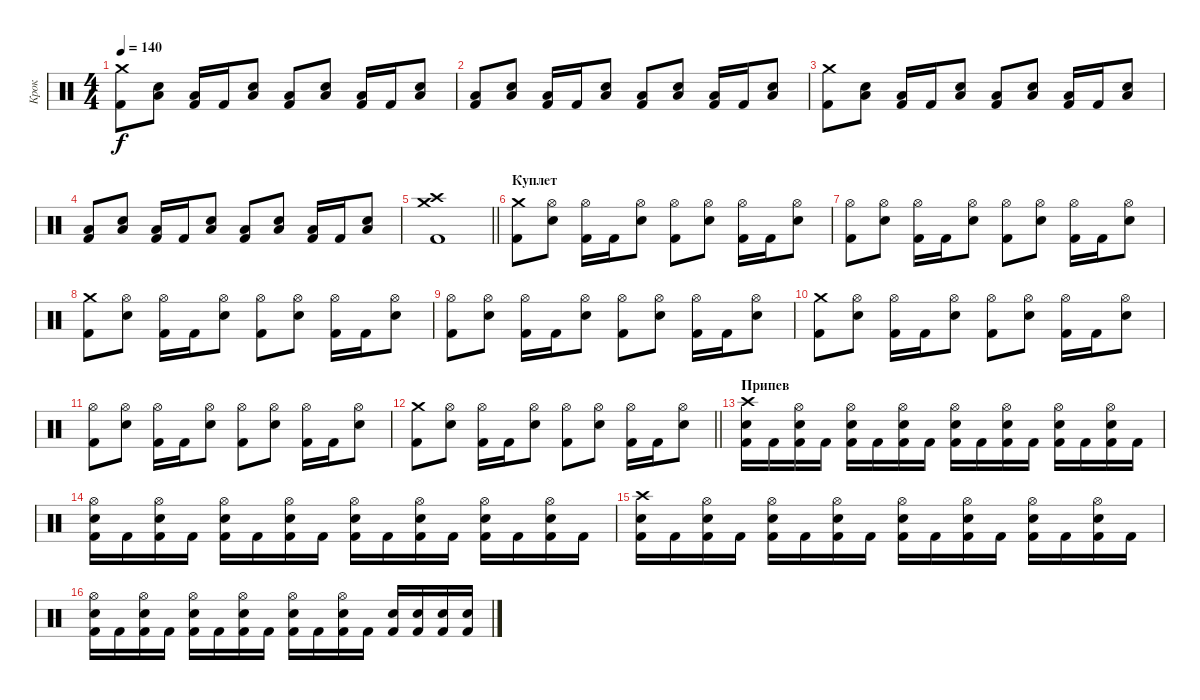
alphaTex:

\track ("Крок" "Крок") {instrument percussion}
\staff {score}
\articulation defaults
\ts (4 4)
\tempo 140
\clef neutral
\ks c
("Crash medium (hit)" "Kick (hit) 2").8{dy f} ("Low Floor Tom (hit)" "Electric Snare (hit)").8 ("Low Floor Tom (hit)" "Kick (hit) 2").16 "Kick (hit) 2".16 ("Low Floor Tom (hit)" "Electric Snare (hit)").8 ("Low Floor Tom (hit)" "Kick (hit) 2").8 ("Low Floor Tom (hit)" "Electric Snare (hit)").8 ("Low Floor Tom (hit)" "Kick (hit) 2").16 "Kick (hit) 2".16 ("Low Floor Tom (hit)" "Electric Snare (hit)").8 |
("Low Floor Tom (hit)" "Kick (hit) 2").8 ("Low Floor Tom (hit)" "Electric Snare (hit)").8 ("Low Floor Tom (hit)" "Kick (hit) 2").16 "Kick (hit) 2".16 ("Low Floor Tom (hit)" "Electric Snare (hit)").8 ("Low Floor Tom (hit)" "Kick (hit) 2").8 ("Low Floor Tom (hit)" "Electric Snare (hit)").8 ("Low Floor Tom (hit)" "Kick (hit) 2").16 "Kick (hit) 2".16 ("Low Floor Tom (hit)" "Electric Snare (hit)").8 |
("Crash medium (hit)" "Kick (hit) 2").8 ("Low Floor Tom (hit)" "Electric Snare (hit)").8 ("Low Floor Tom (hit)" "Kick (hit) 2").16 "Kick (hit) 2".16 ("Low Floor Tom (hit)" "Electric Snare (hit)").8 ("Low Floor Tom (hit)" "Kick (hit) 2").8 ("Low Floor Tom (hit)" "Electric Snare (hit)").8 ("Low Floor Tom (hit)" "Kick (hit) 2").16 "Kick (hit) 2".16 ("Low Floor Tom (hit)" "Electric Snare (hit)").8 |
("Low Floor Tom (hit)" "Kick (hit) 2").8 ("Low Floor Tom (hit)" "Electric Snare (hit)").8 ("Low Floor Tom (hit)" "Kick (hit) 2").16 "Kick (hit) 2".16 ("Low Floor Tom (hit)" "Electric Snare (hit)").8 ("Low Floor Tom (hit)" "Kick (hit) 2").8 ("Low Floor Tom (hit)" "Electric Snare (hit)").8 ("Low Floor Tom (hit)" "Kick (hit) 2").16 "Kick (hit) 2".16 ("Low Floor Tom (hit)" "Electric Snare (hit)").8 |
\barLineRight lightlight
("Crash medium (hit)" "Crash high (hit)" "Kick (hit) 2").1 |
\section ("" "Куплет")
("Crash medium (hit)" "Kick (hit) 2").8 ("Hi-Hat (open)" "Electric Snare (hit)").8 ("Hi-Hat (open)" "Kick (hit) 2").16 "Kick (hit) 2".16 ("Hi-Hat (open)" "Electric Snare (hit)").8 ("Hi-Hat (open)" "Kick (hit) 2").8 ("Hi-Hat (open)" "Electric Snare (hit)").8 ("Hi-Hat (open)" "Kick (hit) 2").16 "Kick (hit) 2".16 ("Hi-Hat (open)" "Electric Snare (hit)").8 |
("Hi-Hat (open)" "Kick (hit) 2").8 ("Hi-Hat (open)" "Electric Snare (hit)").8 ("Hi-Hat (open)" "Kick (hit) 2").16 "Kick (hit) 2".16 ("Hi-Hat (open)" "Electric Snare (hit)").8 ("Hi-Hat (open)" "Kick (hit) 2").8 ("Hi-Hat (open)" "Electric Snare (hit)").8 ("Hi-Hat (open)" "Kick (hit) 2").16 "Kick (hit) 2".16 ("Hi-Hat (open)" "Electric Snare (hit)").8 |
("Crash medium (hit)" "Kick (hit) 2").8 ("Hi-Hat (open)" "Electric Snare (hit)").8 ("Hi-Hat (open)" "Kick (hit) 2").16 "Kick (hit) 2".16 ("Hi-Hat (open)" "Electric Snare (hit)").8 ("Hi-Hat (open)" "Kick (hit) 2").8 ("Hi-Hat (open)" "Electric Snare (hit)").8 ("Hi-Hat (open)" "Kick (hit) 2").16 "Kick (hit) 2".16 ("Hi-Hat (open)" "Electric Snare (hit)").8 |
("Hi-Hat (open)" "Kick (hit) 2").8 ("Hi-Hat (open)" "Electric Snare (hit)").8 ("Hi-Hat (open)" "Kick (hit) 2").16 "Kick (hit) 2".16 ("Hi-Hat (open)" "Electric Snare (hit)").8 ("Hi-Hat (open)" "Kick (hit) 2").8 ("Hi-Hat (open)" "Electric Snare (hit)").8 ("Hi-Hat (open)" "Kick (hit) 2").16 "Kick (hit) 2".16 ("Hi-Hat (open)" "Electric Snare (hit)").8 |
("Crash medium (hit)" "Kick (hit) 2").8 ("Hi-Hat (open)" "Electric Snare (hit)").8 ("Hi-Hat (open)" "Kick (hit) 2").16 "Kick (hit) 2".16 ("Hi-Hat (open)" "Electric Snare (hit)").8 ("Hi-Hat (open)" "Kick (hit) 2").8 ("Hi-Hat (open)" "Electric Snare (hit)").8 ("Hi-Hat (open)" "Kick (hit) 2").16 "Kick (hit) 2".16 ("Hi-Hat (open)" "Electric Snare (hit)").8 |
("Hi-Hat (open)" "Kick (hit) 2").8 ("Hi-Hat (open)" "Electric Snare (hit)").8 ("Hi-Hat (open)" "Kick (hit) 2").16 "Kick (hit) 2".16 ("Hi-Hat (open)" "Electric Snare (hit)").8 ("Hi-Hat (open)" "Kick (hit) 2").8 ("Hi-Hat (open)" "Electric Snare (hit)").8 ("Hi-Hat (open)" "Kick (hit) 2").16 "Kick (hit) 2".16 ("Hi-Hat (open)" "Electric Snare (hit)").8 |
\barLineRight lightlight
("Crash medium (hit)" "Kick (hit) 2").8 ("Hi-Hat (open)" "Electric Snare (hit)").8 ("Hi-Hat (open)" "Kick (hit) 2").16 "Kick (hit) 2".16 ("Hi-Hat (open)" "Electric Snare (hit)").8 ("Hi-Hat (open)" "Kick (hit) 2").8 ("Hi-Hat (open)" "Electric Snare (hit)").8 ("Hi-Hat (open)" "Kick (hit) 2").16 "Kick (hit) 2".16 ("Hi-Hat (open)" "Electric Snare (hit)").8 |
\section ("" "Припев")
("Crash high (hit)" "Electric Snare (hit)" "Kick (hit) 2").16 "Kick (hit) 2".16 ("Hi-Hat (open)" "Electric Snare (hit)" "Kick (hit) 2").16 "Kick (hit) 2".16 ("Hi-Hat (open)" "Electric Snare (hit)" "Kick (hit) 2").16 "Kick (hit) 2".16 ("Hi-Hat (open)" "Electric Snare (hit)" "Kick (hit) 2").16 "Kick (hit) 2".16 ("Hi-Hat (open)" "Electric Snare (hit)" "Kick (hit) 2").16 "Kick (hit) 2".16 ("Hi-Hat (open)" "Electric Snare (hit)" "Kick (hit) 2").16 "Kick (hit) 2".16 ("Hi-Hat (open)" "Electric Snare (hit)" "Kick (hit) 2").16 "Kick (hit) 2".16 ("Hi-Hat (open)" "Electric Snare (hit)" "Kick (hit) 2").16 "Kick (hit) 2".16 |
("Hi-Hat (open)" "Electric Snare (hit)" "Kick (hit) 2").16 "Kick (hit) 2".16 ("Hi-Hat (open)" "Electric Snare (hit)" "Kick (hit) 2").16 "Kick (hit) 2".16 ("Hi-Hat (open)" "Electric Snare (hit)" "Kick (hit) 2").16 "Kick (hit) 2".16 ("Hi-Hat (open)" "Electric Snare (hit)" "Kick (hit) 2").16 "Kick (hit) 2".16 ("Hi-Hat (open)" "Electric Snare (hit)" "Kick (hit) 2").16 "Kick (hit) 2".16 ("Hi-Hat (open)" "Electric Snare (hit)" "Kick (hit) 2").16 "Kick (hit) 2".16 ("Hi-Hat (open)" "Electric Snare (hit)" "Kick (hit) 2").16 "Kick (hit) 2".16 ("Hi-Hat (open)" "Electric Snare (hit)" "Kick (hit) 2").16 "Kick (hit) 2".16 |
("Crash high (hit)" "Electric Snare (hit)" "Kick (hit) 2").16 "Kick (hit) 2".16 ("Hi-Hat (open)" "Electric Snare (hit)" "Kick (hit) 2").16 "Kick (hit) 2".16 ("Hi-Hat (open)" "Electric Snare (hit)" "Kick (hit) 2").16 "Kick (hit) 2".16 ("Hi-Hat (open)" "Electric Snare (hit)" "Kick (hit) 2").16 "Kick (hit) 2".16 ("Hi-Hat (open)" "Electric Snare (hit)" "Kick (hit) 2").16 "Kick (hit) 2".16 ("Hi-Hat (open)" "Electric Snare (hit)" "Kick (hit) 2").16 "Kick (hit) 2".16 ("Hi-Hat (open)" "Electric Snare (hit)" "Kick (hit) 2").16 "Kick (hit) 2".16 ("Hi-Hat (open)" "Electric Snare (hit)" "Kick (hit) 2").16 "Kick (hit) 2".16 |
("Hi-Hat (open)" "Electric Snare (hit)" "Kick (hit) 2").16 "Kick (hit) 2".16 ("Hi-Hat (open)" "Electric Snare (hit)" "Kick (hit) 2").16 "Kick (hit) 2".16 ("Hi-Hat (open)" "Electric Snare (hit)" "Kick (hit) 2").16 "Kick (hit) 2".16 ("Hi-Hat (open)" "Electric Snare (hit)" "Kick (hit) 2").16 "Kick (hit) 2".16 ("Hi-Hat (open)" "Electric Snare (hit)" "Kick (hit) 2").16 "Kick (hit) 2".16 ("Hi-Hat (open)" "Electric Snare (hit)" "Kick (hit) 2").16 "Kick (hit) 2".16 ("Electric Snare (hit)" "Kick (hit) 2").16 ("Electric Snare (hit)" "Kick (hit) 2").16 ("Electric Snare (hit)" "Kick (hit) 2").16 ("Electric Snare (hit)" "Kick (hit) 2").16
